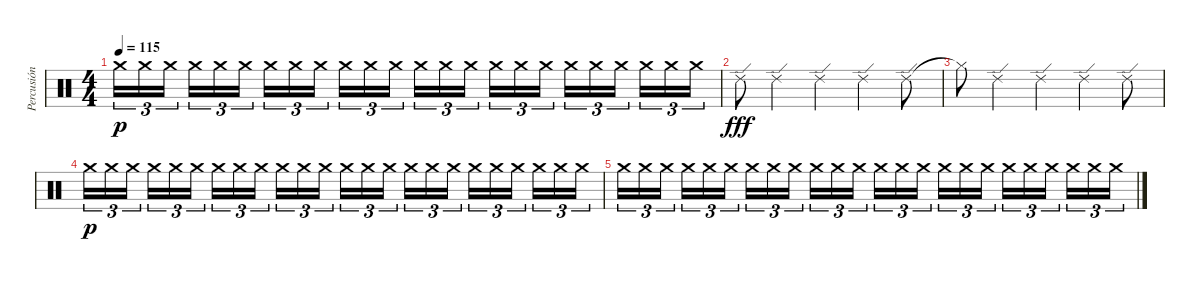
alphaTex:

\track ("Percusión" "Percusión") {instrument percussion}
\staff {score}
\articulation defaults
\ts (4 4)
\tempo 115
\clef neutral
\ks c "Crash medium (hit)".16{tu (3 2) dy p volume 16} "Crash medium (hit)".16{tu (3 2)} "Crash medium (hit)".16{tu (3 2)} "Crash medium (hit)".16{tu (3 2)} "Crash medium (hit)".16{tu (3 2)} "Crash medium (hit)".16{tu (3 2)} "Crash medium (hit)".16{tu (3 2)} "Crash medium (hit)".16{tu (3 2)} "Crash medium (hit)".16{tu (3 2)} "Crash medium (hit)".16{tu (3 2)} "Crash medium (hit)".16{tu (3 2)} "Crash medium (hit)".16{tu (3 2)} "Crash medium (hit)".16{tu (3 2)} "Crash medium (hit)".16{tu (3 2)} "Crash medium (hit)".16{tu (3 2)} "Crash medium (hit)".16{tu (3 2)} "Crash medium (hit)".16{tu (3 2)} "Crash medium (hit)".16{tu (3 2)} "Crash medium (hit)".16{tu (3 2)} "Crash medium (hit)".16{tu (3 2)} "Crash medium (hit)".16{tu (3 2)} "Crash medium (hit)".16{tu (3 2)} "Crash medium (hit)".16{tu (3 2)} "Crash medium (hit)".16{tu (3 2)}
|
"Ride (edge) 2".8{dy fff} "Ride (edge) 2".4 "Ride (edge) 2".4 "Ride (edge) 2".4 "Ride (edge) 2".8 |
"Hi-Hat (closed)"{t}.8 "Ride (edge) 2".4 "Ride (edge) 2".4 "Ride (edge) 2".4 "Ride (edge) 2".8{volume 0} |
"Crash medium (hit)".16{tu (3 2) dy p volume 16} "Crash medium (hit)".16{tu (3 2)} "Crash medium (hit)".16{tu (3 2)} "Crash medium (hit)".16{tu (3 2)} "Crash medium (hit)".16{tu (3 2)} "Crash medium (hit)".16{tu (3 2)} "Crash medium (hit)".16{tu (3 2)} "Crash medium (hit)".16{tu (3 2)} "Crash medium (hit)".16{tu (3 2)} "Crash medium (hit)".16{tu (3 2)} "Crash medium (hit)".16{tu (3 2)} "Crash medium (hit)".16{tu (3 2)} "Crash medium (hit)".16{tu (3 2)} "Crash medium (hit)".16{tu (3 2)} "Crash medium (hit)".16{tu (3 2)} "Crash medium (hit)".16{tu (3 2)} "Crash medium (hit)".16{tu (3 2)} "Crash medium (hit)".16{tu (3 2)} "Crash medium (hit)".16{tu (3 2)} "Crash medium (hit)".16{tu (3 2)} "Crash medium (hit)".16{tu (3 2)} "Crash medium (hit)".16{tu (3 2)} "Crash medium (hit)".16{tu (3 2)} "Crash medium (hit)".16{tu (3 2)} |
"Crash medium (hit)".16{tu (3 2) volume 16} "Crash medium (hit)".16{tu (3 2)} "Crash medium (hit)".16{tu (3 2)} "Crash medium (hit)".16{tu (3 2)} "Crash medium (hit)".16{tu (3 2)} "Crash medium (hit)".16{tu (3 2)} "Crash medium (hit)".16{tu (3 2)} "Crash medium (hit)".16{tu (3 2)} "Crash medium (hit)".16{tu (3 2)} "Crash medium (hit)".16{tu (3 2)} "Crash medium (hit)".16{tu (3 2)} "Crash medium (hit)".16{tu (3 2)} "Crash medium (hit)".16{tu (3 2)} "Crash medium (hit)".16{tu (3 2)} "Crash medium (hit)".16{tu (3 2)} "Crash medium (hit)".16{tu (3 2)} "Crash medium (hit)".16{tu (3 2)} "Crash medium (hit)".16{tu (3 2)} "Crash medium (hit)".16{tu (3 2)} "Crash medium (hit)".16{tu (3 2)} "Crash medium (hit)".16{tu (3 2)} "Crash medium (hit)".16{tu (3 2)} "Crash medium (hit)".16{tu (3 2)} "Crash medium (hit)".16{tu (3 2)}
